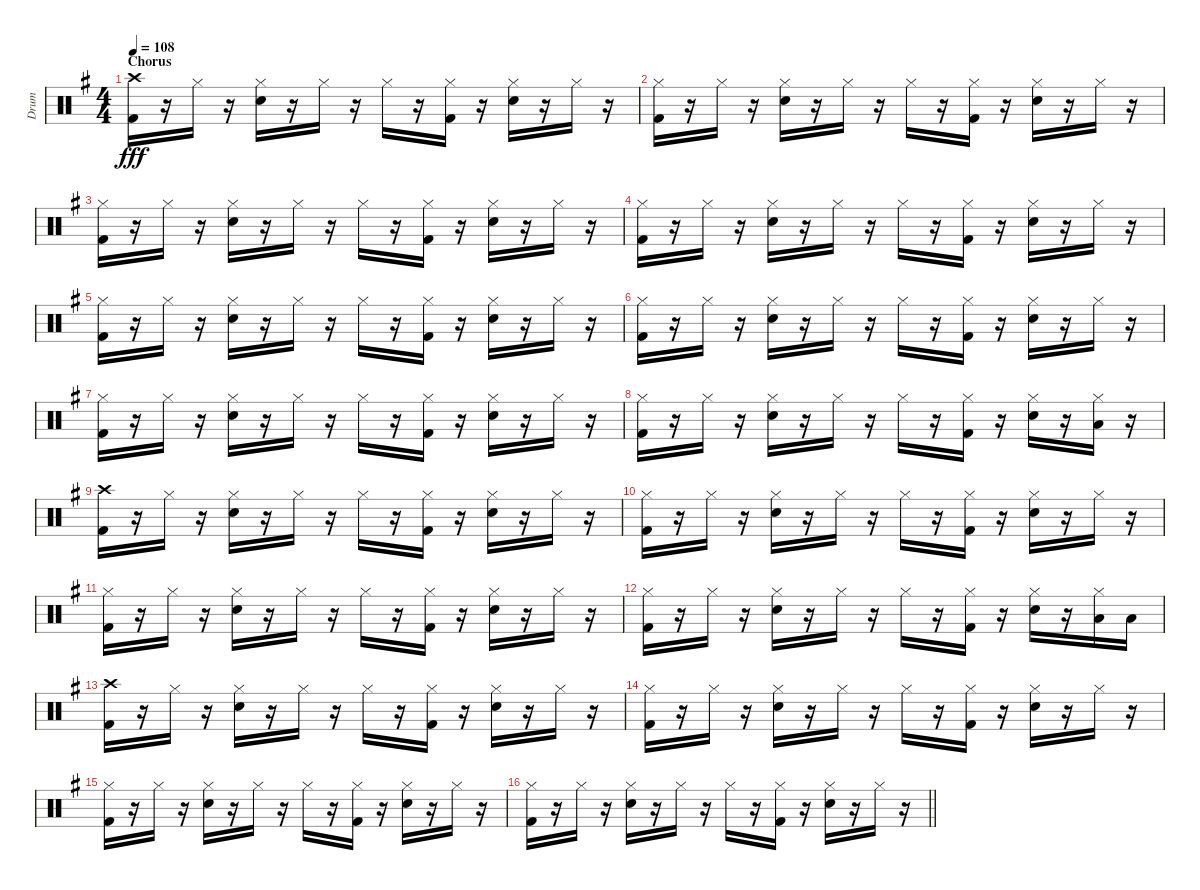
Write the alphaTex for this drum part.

\track ("Drum" "Drum") {instrument percussion}
\staff {score}
\articulation defaults
\ts (4 4)
\section ("" "Chorus")
\tempo 108
\clef neutral
\ks g
("Crash high (hit)" "Kick (hit) 2").16{dy fff} r.16 "Hi-Hat (closed)".16 r.16 ("Hi-Hat (closed)" "Electric Snare (hit)").16 r.16 "Hi-Hat (closed)".16 r.16 "Hi-Hat (closed)".16 r.16 ("Hi-Hat (closed)" "Kick (hit) 2").16 r.16 ("Hi-Hat (closed)" "Electric Snare (hit)").16 r.16 "Hi-Hat (closed)".16 r.16 |
("Hi-Hat (closed)" "Kick (hit) 2").16 r.16 "Hi-Hat (closed)".16 r.16 ("Hi-Hat (closed)" "Electric Snare (hit)").16 r.16 "Hi-Hat (closed)".16 r.16 "Hi-Hat (closed)".16 r.16 ("Hi-Hat (closed)" "Kick (hit) 2").16 r.16 ("Hi-Hat (closed)" "Electric Snare (hit)").16 r.16 "Hi-Hat (closed)".16 r.16 |
("Hi-Hat (closed)" "Kick (hit) 2").16 r.16 "Hi-Hat (closed)".16 r.16 ("Hi-Hat (closed)" "Electric Snare (hit)").16 r.16 "Hi-Hat (closed)".16 r.16 "Hi-Hat (closed)".16 r.16 ("Hi-Hat (closed)" "Kick (hit) 2").16 r.16 ("Hi-Hat (closed)" "Electric Snare (hit)").16 r.16 "Hi-Hat (closed)".16 r.16 |
("Hi-Hat (closed)" "Kick (hit) 2").16 r.16 "Hi-Hat (closed)".16 r.16 ("Hi-Hat (closed)" "Electric Snare (hit)").16 r.16 "Hi-Hat (closed)".16 r.16 "Hi-Hat (closed)".16 r.16 ("Hi-Hat (closed)" "Kick (hit) 2").16 r.16 ("Hi-Hat (closed)" "Electric Snare (hit)").16 r.16 "Hi-Hat (closed)".16 r.16 |
("Hi-Hat (closed)" "Kick (hit) 2").16 r.16 "Hi-Hat (closed)".16 r.16 ("Hi-Hat (closed)" "Electric Snare (hit)").16 r.16 "Hi-Hat (closed)".16 r.16 "Hi-Hat (closed)".16 r.16 ("Hi-Hat (closed)" "Kick (hit) 2").16 r.16 ("Hi-Hat (closed)" "Electric Snare (hit)").16 r.16 "Hi-Hat (closed)".16 r.16 |
("Hi-Hat (closed)" "Kick (hit) 2").16 r.16 "Hi-Hat (closed)".16 r.16 ("Hi-Hat (closed)" "Electric Snare (hit)").16 r.16 "Hi-Hat (closed)".16 r.16 "Hi-Hat (closed)".16 r.16 ("Hi-Hat (closed)" "Kick (hit) 2").16 r.16 ("Hi-Hat (closed)" "Electric Snare (hit)").16 r.16 "Hi-Hat (closed)".16 r.16 |
("Hi-Hat (closed)" "Kick (hit) 2").16 r.16 "Hi-Hat (closed)".16 r.16 ("Hi-Hat (closed)" "Electric Snare (hit)").16 r.16 "Hi-Hat (closed)".16 r.16 "Hi-Hat (closed)".16 r.16 ("Hi-Hat (closed)" "Kick (hit) 2").16 r.16 ("Hi-Hat (closed)" "Electric Snare (hit)").16 r.16 "Hi-Hat (closed)".16 r.16 |
("Hi-Hat (closed)" "Kick (hit) 2").16 r.16 "Hi-Hat (closed)".16 r.16 ("Hi-Hat (closed)" "Electric Snare (hit)").16 r.16 "Hi-Hat (closed)".16 r.16 "Hi-Hat (closed)".16 r.16 ("Hi-Hat (closed)" "Kick (hit) 2").16 r.16 ("Hi-Hat (closed)" "Electric Snare (hit)").16 r.16 ("Hi-Hat (closed)" "Low Tom (hit)").16 r.16 |
("Crash high (hit)" "Kick (hit) 2").16 r.16 "Hi-Hat (closed)".16 r.16 ("Hi-Hat (closed)" "Electric Snare (hit)").16 r.16 "Hi-Hat (closed)".16 r.16 "Hi-Hat (closed)".16 r.16 ("Hi-Hat (closed)" "Kick (hit) 2").16 r.16 ("Hi-Hat (closed)" "Electric Snare (hit)").16 r.16 "Hi-Hat (closed)".16 r.16 |
("Hi-Hat (closed)" "Kick (hit) 2").16 r.16 "Hi-Hat (closed)".16 r.16 ("Hi-Hat (closed)" "Electric Snare (hit)").16 r.16 "Hi-Hat (closed)".16 r.16 "Hi-Hat (closed)".16 r.16 ("Hi-Hat (closed)" "Kick (hit) 2").16 r.16 ("Hi-Hat (closed)" "Electric Snare (hit)").16 r.16 "Hi-Hat (closed)".16 r.16 |
("Hi-Hat (closed)" "Kick (hit) 2").16 r.16 "Hi-Hat (closed)".16 r.16 ("Hi-Hat (closed)" "Electric Snare (hit)").16 r.16 "Hi-Hat (closed)".16 r.16 "Hi-Hat (closed)".16 r.16 ("Hi-Hat (closed)" "Kick (hit) 2").16 r.16 ("Hi-Hat (closed)" "Electric Snare (hit)").16 r.16 "Hi-Hat (closed)".16 r.16 |
("Hi-Hat (closed)" "Kick (hit) 2").16 r.16 "Hi-Hat (closed)".16 r.16 ("Hi-Hat (closed)" "Electric Snare (hit)").16 r.16 "Hi-Hat (closed)".16 r.16 "Hi-Hat (closed)".16 r.16 ("Hi-Hat (closed)" "Kick (hit) 2").16 r.16 ("Hi-Hat (closed)" "Electric Snare (hit)").16 r.16 ("Hi-Hat (closed)" "Low Tom (hit)").16 "Low Tom (hit)".16 |
("Crash high (hit)" "Kick (hit) 2").16 r.16 "Hi-Hat (closed)".16 r.16 ("Hi-Hat (closed)" "Electric Snare (hit)").16 r.16 "Hi-Hat (closed)".16 r.16 "Hi-Hat (closed)".16 r.16 ("Hi-Hat (closed)" "Kick (hit) 2").16 r.16 ("Hi-Hat (closed)" "Electric Snare (hit)").16 r.16 "Hi-Hat (closed)".16 r.16 |
("Hi-Hat (closed)" "Kick (hit) 2").16 r.16 "Hi-Hat (closed)".16 r.16 ("Hi-Hat (closed)" "Electric Snare (hit)").16 r.16 "Hi-Hat (closed)".16 r.16 "Hi-Hat (closed)".16 r.16 ("Hi-Hat (closed)" "Kick (hit) 2").16 r.16 ("Hi-Hat (closed)" "Electric Snare (hit)").16 r.16 "Hi-Hat (closed)".16 r.16 |
("Hi-Hat (closed)" "Kick (hit) 2").16 r.16 "Hi-Hat (closed)".16 r.16 ("Hi-Hat (closed)" "Electric Snare (hit)").16 r.16 "Hi-Hat (closed)".16 r.16 "Hi-Hat (closed)".16 r.16 ("Hi-Hat (closed)" "Kick (hit) 2").16 r.16 ("Hi-Hat (closed)" "Electric Snare (hit)").16 r.16 "Hi-Hat (closed)".16 r.16 |
\barLineRight lightlight
("Hi-Hat (closed)" "Kick (hit) 2").16 r.16 "Hi-Hat (closed)".16 r.16 ("Hi-Hat (closed)" "Electric Snare (hit)").16 r.16 "Hi-Hat (closed)".16 r.16 "Hi-Hat (closed)".16 r.16 ("Hi-Hat (closed)" "Kick (hit) 2").16 r.16 ("Hi-Hat (closed)" "Electric Snare (hit)").16 r.16 "Hi-Hat (closed)".16 r.16
